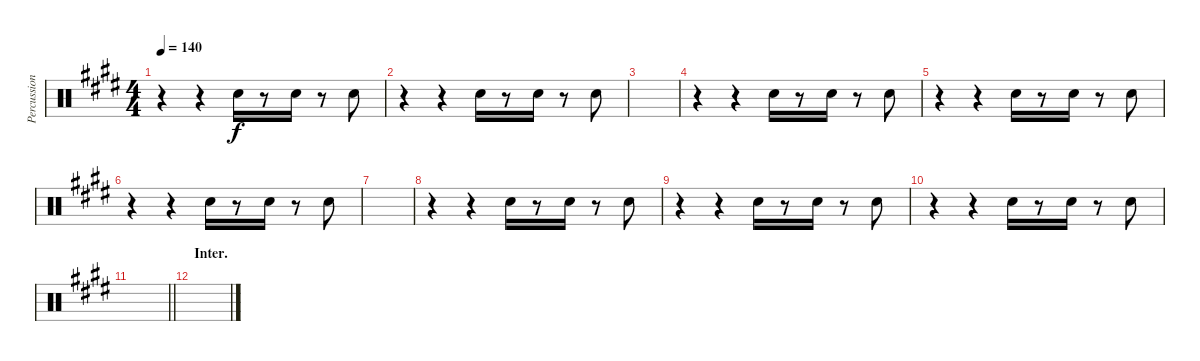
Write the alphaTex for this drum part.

\track ("Percussion" "Percussion") {instrument percussion}
\staff {score}
\articulation defaults
\ts (4 4)
\tempo 140
\clef neutral
\ks e
r.4{dy f} r.4 "Hand Clap (hit)".16 r.8 "Hand Clap (hit)".16 r.8 "Hand Clap (hit)".8 |
r.4 r.4 "Hand Clap (hit)".16 r.8 "Hand Clap (hit)".16 r.8 "Hand Clap (hit)".8 |
|
r.4 r.4 "Hand Clap (hit)".16 r.8 "Hand Clap (hit)".16 r.8 "Hand Clap (hit)".8 |
r.4 r.4 "Hand Clap (hit)".16 r.8 "Hand Clap (hit)".16 r.8 "Hand Clap (hit)".8 |
r.4 r.4 "Hand Clap (hit)".16 r.8 "Hand Clap (hit)".16 r.8 "Hand Clap (hit)".8 |
|
r.4 r.4 "Hand Clap (hit)".16 r.8 "Hand Clap (hit)".16 r.8 "Hand Clap (hit)".8 |
r.4 r.4 "Hand Clap (hit)".16 r.8 "Hand Clap (hit)".16 r.8 "Hand Clap (hit)".8 |
r.4 r.4 "Hand Clap (hit)".16 r.8 "Hand Clap (hit)".16 r.8 "Hand Clap (hit)".8 |
\barLineRight lightlight
|
\section ("" "Inter.")
